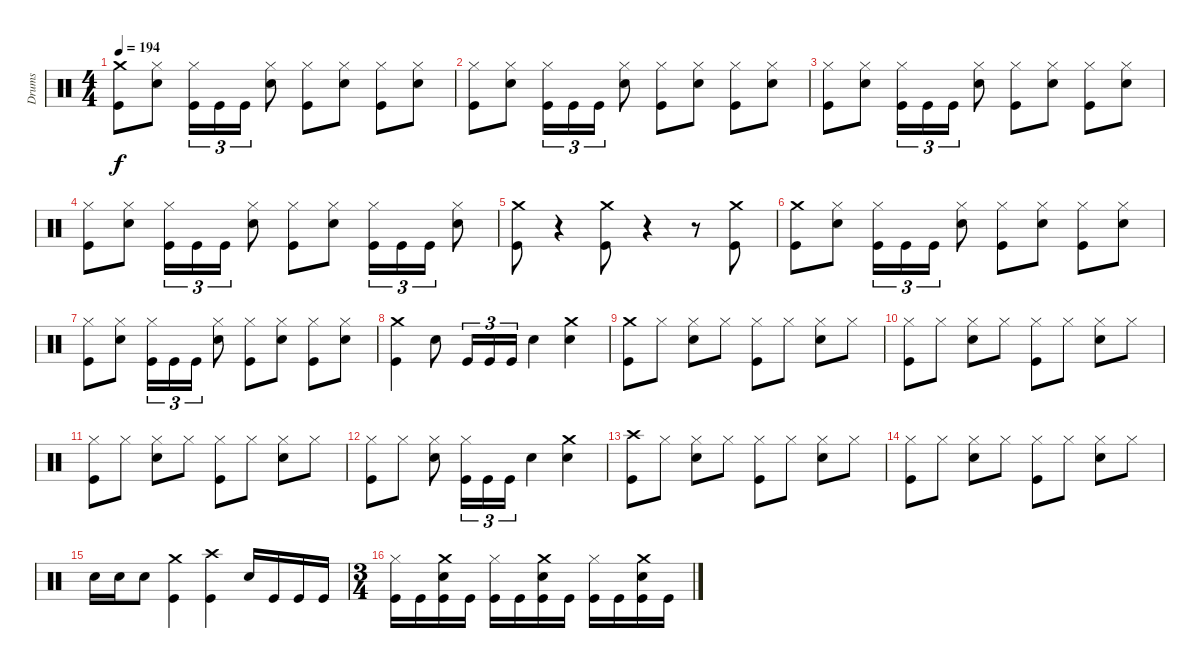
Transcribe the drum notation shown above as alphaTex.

\track ("Drums" "Drums") {instrument percussion}
\staff {score}
\articulation defaults
\ts (4 4)
\tempo 194
\clef neutral
\ks c
("Crash medium (hit)" "Kick (hit)").8{dy f} ("Hi-Hat (closed)" "Snare (hit) 2").8 ("Hi-Hat (closed)" "Kick (hit)").16{tu (3 2)} "Kick (hit)".16{tu (3 2)} "Kick (hit)".16{tu (3 2)} ("Hi-Hat (closed)" "Snare (hit) 2").8 ("Hi-Hat (closed)" "Kick (hit)").8 ("Hi-Hat (closed)" "Snare (hit) 2").8 ("Hi-Hat (closed)" "Kick (hit)").8 ("Hi-Hat (closed)" "Snare (hit) 2").8 |
("Hi-Hat (closed)" "Kick (hit)").8 ("Hi-Hat (closed)" "Snare (hit) 2").8 ("Hi-Hat (closed)" "Kick (hit)").16{tu (3 2)} "Kick (hit)".16{tu (3 2)} "Kick (hit)".16{tu (3 2)} ("Hi-Hat (closed)" "Snare (hit) 2").8 ("Hi-Hat (closed)" "Kick (hit)").8 ("Hi-Hat (closed)" "Snare (hit) 2").8 ("Hi-Hat (closed)" "Kick (hit)").8 ("Hi-Hat (closed)" "Snare (hit) 2").8 |
("Hi-Hat (closed)" "Kick (hit)").8 ("Hi-Hat (closed)" "Snare (hit) 2").8 ("Hi-Hat (closed)" "Kick (hit)").16{tu (3 2)} "Kick (hit)".16{tu (3 2)} "Kick (hit)".16{tu (3 2)} ("Hi-Hat (closed)" "Snare (hit) 2").8 ("Hi-Hat (closed)" "Kick (hit)").8 ("Hi-Hat (closed)" "Snare (hit) 2").8 ("Hi-Hat (closed)" "Kick (hit)").8 ("Hi-Hat (closed)" "Snare (hit) 2").8 |
("Hi-Hat (closed)" "Kick (hit)").8 ("Hi-Hat (closed)" "Snare (hit) 2").8 ("Hi-Hat (closed)" "Kick (hit)").16{tu (3 2)} "Kick (hit)".16{tu (3 2)} "Kick (hit)".16{tu (3 2)} ("Hi-Hat (closed)" "Snare (hit) 2").8 ("Hi-Hat (closed)" "Kick (hit)").8 ("Hi-Hat (closed)" "Snare (hit) 2").8 ("Hi-Hat (closed)" "Kick (hit)").16{tu (3 2)} "Kick (hit)".16{tu (3 2)} "Kick (hit)".16{tu (3 2)} ("Hi-Hat (closed)" "Snare (hit) 2").8 |
("Crash medium (hit)" "Kick (hit)").8 r.4 ("Crash medium (hit)" "Kick (hit)").8 r.4 r.8 ("Crash medium (hit)" "Kick (hit)").8 |
("Crash medium (hit)" "Kick (hit)").8 ("Hi-Hat (closed)" "Snare (hit) 2").8 ("Hi-Hat (closed)" "Kick (hit)").16{tu (3 2)} "Kick (hit)".16{tu (3 2)} "Kick (hit)".16{tu (3 2)} ("Hi-Hat (closed)" "Snare (hit) 2").8 ("Hi-Hat (closed)" "Kick (hit)").8 ("Hi-Hat (closed)" "Snare (hit) 2").8 ("Hi-Hat (closed)" "Kick (hit)").8 ("Hi-Hat (closed)" "Snare (hit) 2").8 |
("Hi-Hat (closed)" "Kick (hit)").8 ("Hi-Hat (closed)" "Snare (hit) 2").8 ("Hi-Hat (closed)" "Kick (hit)").16{tu (3 2)} "Kick (hit)".16{tu (3 2)} "Kick (hit)".16{tu (3 2)} ("Hi-Hat (closed)" "Snare (hit) 2").8 ("Hi-Hat (closed)" "Kick (hit)").8 ("Hi-Hat (closed)" "Snare (hit) 2").8 ("Hi-Hat (closed)" "Kick (hit)").8 ("Hi-Hat (closed)" "Snare (hit) 2").8 |
("Crash medium (hit)" "Kick (hit)").4 "Snare (hit) 2".8 "Kick (hit)".16{tu (3 2)} "Kick (hit)".16{tu (3 2)} "Kick (hit)".16{tu (3 2)} "Snare (hit) 2".4 ("Crash medium (hit)" "Snare (hit) 2").4 |
("Crash medium (hit)" "Kick (hit)").8 "Hi-Hat (closed)".8 ("Hi-Hat (closed)" "Snare (hit) 2").8 "Hi-Hat (closed)".8 ("Hi-Hat (closed)" "Kick (hit)").8 "Hi-Hat (closed)".8 ("Hi-Hat (closed)" "Snare (hit) 2").8 "Hi-Hat (closed)".8 |
("Hi-Hat (closed)" "Kick (hit)").8 "Hi-Hat (closed)".8 ("Hi-Hat (closed)" "Snare (hit) 2").8 "Hi-Hat (closed)".8 ("Hi-Hat (closed)" "Kick (hit)").8 "Hi-Hat (closed)".8 ("Hi-Hat (closed)" "Snare (hit) 2").8 "Hi-Hat (closed)".8 |
("Hi-Hat (closed)" "Kick (hit)").8 "Hi-Hat (closed)".8 ("Hi-Hat (closed)" "Snare (hit) 2").8 "Hi-Hat (closed)".8 ("Hi-Hat (closed)" "Kick (hit)").8 "Hi-Hat (closed)".8 ("Hi-Hat (closed)" "Snare (hit) 2").8 "Hi-Hat (closed)".8 |
("Hi-Hat (closed)" "Kick (hit)").8 "Hi-Hat (closed)".8 ("Hi-Hat (closed)" "Snare (hit) 2").8 ("Hi-Hat (closed)" "Kick (hit)").16{tu (3 2)} "Kick (hit)".16{tu (3 2)} "Kick (hit)".16{tu (3 2)} "Snare (hit) 2".4 ("Crash medium (hit)" "Snare (hit) 2").4 |
("Crash high (hit)" "Kick (hit)").8 "Hi-Hat (closed)".8 ("Hi-Hat (closed)" "Snare (hit) 2").8 "Hi-Hat (closed)".8 ("Hi-Hat (closed)" "Kick (hit)").8 "Hi-Hat (closed)".8 ("Hi-Hat (closed)" "Snare (hit) 2").8 "Hi-Hat (closed)".8 |
("Hi-Hat (closed)" "Kick (hit)").8 "Hi-Hat (closed)".8 ("Hi-Hat (closed)" "Snare (hit) 2").8 "Hi-Hat (closed)".8 ("Hi-Hat (closed)" "Kick (hit)").8 "Hi-Hat (closed)".8 ("Hi-Hat (closed)" "Snare (hit) 2").8 "Hi-Hat (closed)".8 |
"Snare (hit) 2".16 "Snare (hit) 2".16 "Snare (hit) 2".8 ("Crash medium (hit)" "Kick (hit)").4 ("Crash high (hit)" "Kick (hit)").4 "Snare (hit) 2".16 "Kick (hit)".16 "Kick (hit)".16 "Kick (hit)".16 |
\ts (3 4)
("Hi-Hat (closed)" "Kick (hit)").16 "Kick (hit)".16 ("Crash medium (hit)" "Snare (hit) 2" "Kick (hit)").16 "Kick (hit)".16 ("Hi-Hat (closed)" "Kick (hit)").16 "Kick (hit)".16 ("Crash medium (hit)" "Snare (hit) 2" "Kick (hit)").16 "Kick (hit)".16 ("Hi-Hat (closed)" "Kick (hit)").16 "Kick (hit)".16 ("Crash medium (hit)" "Snare (hit) 2" "Kick (hit)").16 "Kick (hit)".16
